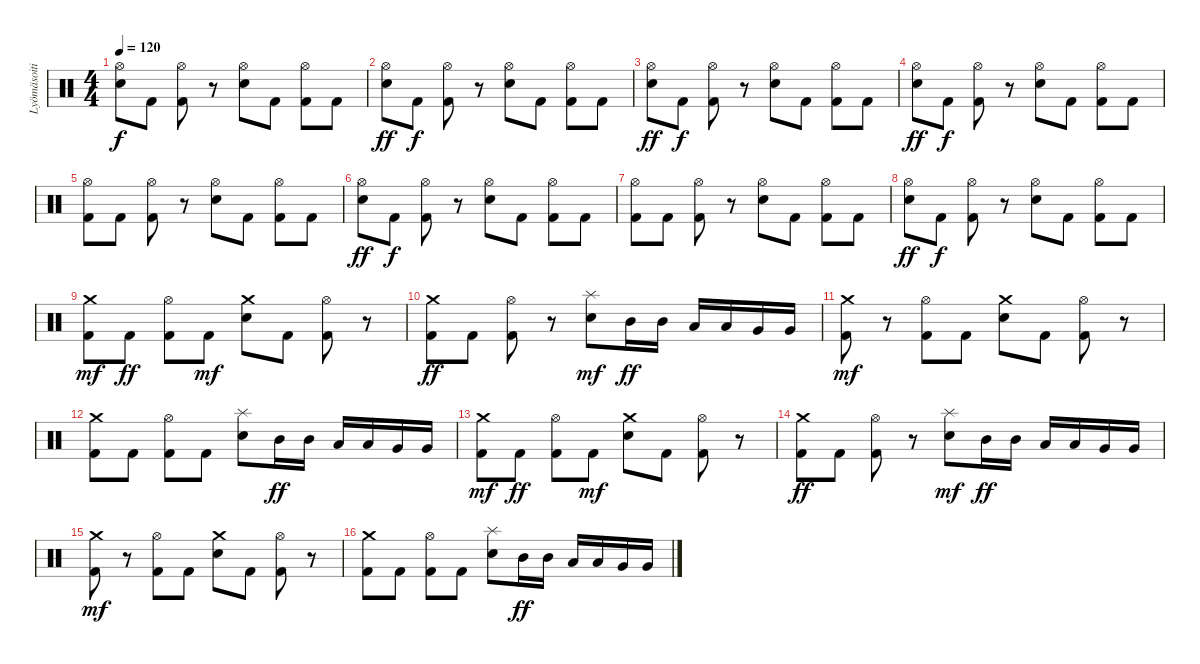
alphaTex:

\track ("Lyömäsoitin" "Lyömäsoiti") {instrument percussion}
\staff {score}
\articulation defaults
\ts (4 4)
\tempo 120
\clef neutral
\ks c
("Hi-Hat (open)" "Snare (hit) 2").8{dy f} "Kick (hit) 2".8 ("Hi-Hat (open)" "Kick (hit) 2").8 r.8 ("Hi-Hat (open)" "Snare (hit) 2").8 "Kick (hit) 2".8 ("Hi-Hat (open)" "Kick (hit) 2").8 "Kick (hit) 2".8 |
("Hi-Hat (open)" "Snare (hit) 2").8{dy ff} "Kick (hit) 2".8{dy f} ("Hi-Hat (open)" "Kick (hit) 2").8 r.8 ("Hi-Hat (open)" "Snare (hit) 2").8 "Kick (hit) 2".8 ("Hi-Hat (open)" "Kick (hit) 2").8 "Kick (hit) 2".8 |
("Hi-Hat (open)" "Snare (hit) 2").8{dy ff} "Kick (hit) 2".8{dy f} ("Hi-Hat (open)" "Kick (hit) 2").8 r.8 ("Hi-Hat (open)" "Snare (hit) 2").8 "Kick (hit) 2".8 ("Hi-Hat (open)" "Kick (hit) 2").8 "Kick (hit) 2".8 |
("Hi-Hat (open)" "Snare (hit) 2").8{dy ff} "Kick (hit) 2".8{dy f} ("Hi-Hat (open)" "Kick (hit) 2").8 r.8 ("Hi-Hat (open)" "Snare (hit) 2").8 "Kick (hit) 2".8 ("Hi-Hat (open)" "Kick (hit) 2").8 "Kick (hit) 2".8 |
("Hi-Hat (open)" "Kick (hit) 2").8 "Kick (hit) 2".8 ("Hi-Hat (open)" "Kick (hit) 2").8 r.8 ("Hi-Hat (open)" "Snare (hit) 2").8 "Kick (hit) 2".8 ("Hi-Hat (open)" "Kick (hit) 2").8 "Kick (hit) 2".8 |
("Hi-Hat (open)" "Snare (hit) 2").8{dy ff} "Kick (hit) 2".8{dy f} ("Hi-Hat (open)" "Kick (hit) 2").8 r.8 ("Hi-Hat (open)" "Snare (hit) 2").8 "Kick (hit) 2".8 ("Hi-Hat (open)" "Kick (hit) 2").8 "Kick (hit) 2".8 |
("Hi-Hat (open)" "Kick (hit) 2").8 "Kick (hit) 2".8 ("Hi-Hat (open)" "Kick (hit) 2").8 r.8 ("Hi-Hat (open)" "Snare (hit) 2").8 "Kick (hit) 2".8 ("Hi-Hat (open)" "Kick (hit) 2").8 "Kick (hit) 2".8 |
("Hi-Hat (open)" "Snare (hit) 2").8{dy ff} "Kick (hit) 2".8{dy f} ("Hi-Hat (open)" "Kick (hit) 2").8 r.8 ("Hi-Hat (open)" "Snare (hit) 2").8 "Kick (hit) 2".8 ("Hi-Hat (open)" "Kick (hit) 2").8 "Kick (hit) 2".8 |
("Crash medium (hit)" "Kick (hit) 2").8{dy mf} "Kick (hit) 2".8{dy ff} ("Hi-Hat (open)" "Kick (hit) 2").8 "Kick (hit) 2".8{dy mf} ("Crash medium (hit)" "Snare (hit) 2").8 "Kick (hit) 2".8 ("Hi-Hat (open)" "Kick (hit) 2").8 r.8 |
("Crash medium (hit)" "Kick (hit) 2").8{dy ff} "Kick (hit) 2".8 ("Hi-Hat (open)" "Kick (hit) 2").8 r.8 ("Splash (hit)" "Snare (hit) 2").8{dy mf} "Mid Tom (hit)".16{dy ff} "Mid Tom (hit)".16 "Low Tom (hit)".16 "Low Tom (hit)".16 "Very Low Tom (hit)".16 "Very Low Tom (hit)".16 |
("Crash medium (hit)" "Kick (hit) 2").8{dy mf} r.8 ("Hi-Hat (open)" "Kick (hit) 2").8 "Kick (hit) 2".8 ("Crash medium (hit)" "Snare (hit) 2").8 "Kick (hit) 2".8 ("Hi-Hat (open)" "Kick (hit) 2").8 r.8 |
("Crash medium (hit)" "Kick (hit) 2").8 "Kick (hit) 2".8 ("Hi-Hat (open)" "Kick (hit) 2").8 "Kick (hit) 2".8 ("Splash (hit)" "Snare (hit) 2").8 "Mid Tom (hit)".16{dy ff} "Mid Tom (hit)".16 "Low Tom (hit)".16 "Low Tom (hit)".16 "Very Low Tom (hit)".16 "Very Low Tom (hit)".16 |
("Crash medium (hit)" "Kick (hit) 2").8{dy mf} "Kick (hit) 2".8{dy ff} ("Hi-Hat (open)" "Kick (hit) 2").8 "Kick (hit) 2".8{dy mf} ("Crash medium (hit)" "Snare (hit) 2").8 "Kick (hit) 2".8 ("Hi-Hat (open)" "Kick (hit) 2").8 r.8 |
("Crash medium (hit)" "Kick (hit) 2").8{dy ff} "Kick (hit) 2".8 ("Hi-Hat (open)" "Kick (hit) 2").8 r.8 ("Splash (hit)" "Snare (hit) 2").8{dy mf} "Mid Tom (hit)".16{dy ff} "Mid Tom (hit)".16 "Low Tom (hit)".16 "Low Tom (hit)".16 "Very Low Tom (hit)".16 "Very Low Tom (hit)".16 |
("Crash medium (hit)" "Kick (hit) 2").8{dy mf} r.8 ("Hi-Hat (open)" "Kick (hit) 2").8 "Kick (hit) 2".8 ("Crash medium (hit)" "Snare (hit) 2").8 "Kick (hit) 2".8 ("Hi-Hat (open)" "Kick (hit) 2").8 r.8 |
("Crash medium (hit)" "Kick (hit) 2").8 "Kick (hit) 2".8 ("Hi-Hat (open)" "Kick (hit) 2").8 "Kick (hit) 2".8 ("Splash (hit)" "Snare (hit) 2").8 "Mid Tom (hit)".16{dy ff} "Mid Tom (hit)".16 "Low Tom (hit)".16 "Low Tom (hit)".16 "Very Low Tom (hit)".16 "Very Low Tom (hit)".16
